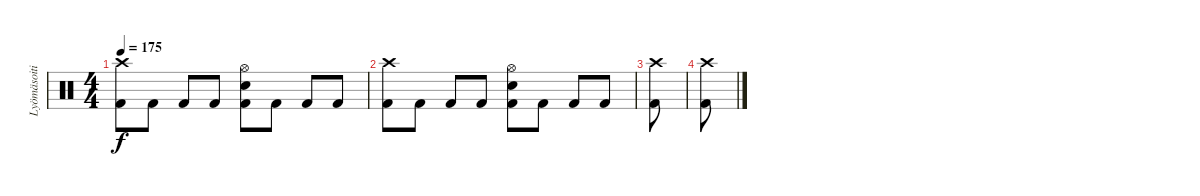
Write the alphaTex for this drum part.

\track ("Lyömäsoitin" "Lyömäsoiti") {instrument percussion}
\staff {score}
\articulation defaults
\ts (4 4)
\tempo 175
\clef neutral
\ks c
("Kick (hit) 2" "Crash high (hit)").8{dy f} "Kick (hit) 2".8 "Kick (hit) 2".8 "Kick (hit) 2".8 ("Kick (hit) 2" "Electric Snare (hit)" "Hi-Hat (open)").8 "Kick (hit) 2".8 "Kick (hit) 2".8 "Kick (hit) 2".8 |
("Kick (hit) 2" "Crash high (hit)").8 "Kick (hit) 2".8 "Kick (hit) 2".8 "Kick (hit) 2".8 ("Kick (hit) 2" "Electric Snare (hit)" "Hi-Hat (open)").8 "Kick (hit) 2".8 "Kick (hit) 2".8 "Kick (hit) 2".8 |
("Kick (hit) 2" "Crash high (hit)").8 |
("Kick (hit) 2" "Crash high (hit)").8
